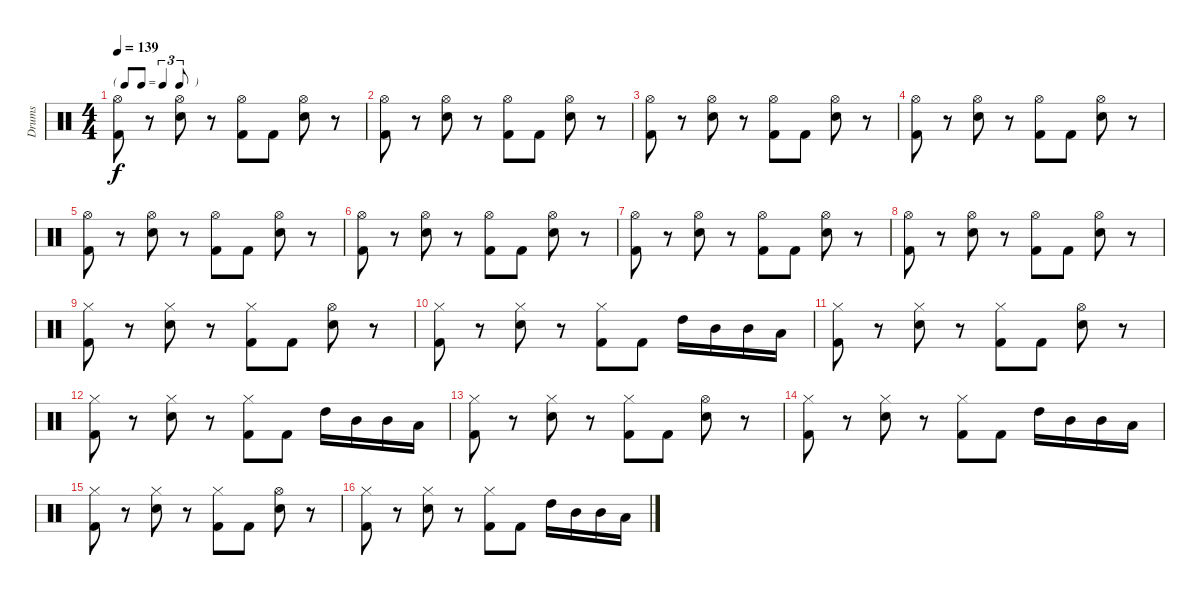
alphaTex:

\track ("Drums" "Drums") {instrument percussion}
\staff {score}
\articulation defaults
\ts (4 4)
\tf triplet8th
\tempo 139
\clef neutral
\ks c
("Hi-Hat (open)" "Kick (hit) 2").8{dy f} r.8 ("Hi-Hat (open)" "Snare (hit) 2").8 r.8 ("Hi-Hat (open)" "Kick (hit) 2").8 "Kick (hit) 2".8 ("Hi-Hat (open)" "Snare (hit) 2").8 r.8 |
("Hi-Hat (open)" "Kick (hit) 2").8 r.8 ("Hi-Hat (open)" "Snare (hit) 2").8 r.8 ("Hi-Hat (open)" "Kick (hit) 2").8 "Kick (hit) 2".8 ("Hi-Hat (open)" "Snare (hit) 2").8 r.8 |
("Hi-Hat (open)" "Kick (hit) 2").8 r.8 ("Hi-Hat (open)" "Snare (hit) 2").8 r.8 ("Hi-Hat (open)" "Kick (hit) 2").8 "Kick (hit) 2".8 ("Hi-Hat (open)" "Snare (hit) 2").8 r.8 |
("Hi-Hat (open)" "Kick (hit) 2").8 r.8 ("Hi-Hat (open)" "Snare (hit) 2").8 r.8 ("Hi-Hat (open)" "Kick (hit) 2").8 "Kick (hit) 2".8 ("Hi-Hat (open)" "Snare (hit) 2").8 r.8 |
("Hi-Hat (open)" "Kick (hit) 2").8 r.8 ("Hi-Hat (open)" "Snare (hit) 2").8 r.8 ("Hi-Hat (open)" "Kick (hit) 2").8 "Kick (hit) 2".8 ("Hi-Hat (open)" "Snare (hit) 2").8 r.8 |
("Hi-Hat (open)" "Kick (hit) 2").8 r.8 ("Hi-Hat (open)" "Snare (hit) 2").8 r.8 ("Hi-Hat (open)" "Kick (hit) 2").8 "Kick (hit) 2".8 ("Hi-Hat (open)" "Snare (hit) 2").8 r.8 |
("Hi-Hat (open)" "Kick (hit) 2").8 r.8 ("Hi-Hat (open)" "Snare (hit) 2").8 r.8 ("Hi-Hat (open)" "Kick (hit) 2").8 "Kick (hit) 2".8 ("Hi-Hat (open)" "Snare (hit) 2").8 r.8 |
("Hi-Hat (open)" "Kick (hit) 2").8 r.8 ("Hi-Hat (open)" "Snare (hit) 2").8 r.8 ("Hi-Hat (open)" "Kick (hit) 2").8 "Kick (hit) 2".8 ("Hi-Hat (open)" "Snare (hit) 2").8 r.8 |
("Hi-Hat (closed)" "Kick (hit) 2").8 r.8 ("Hi-Hat (closed)" "Snare (hit) 2").8 r.8 ("Hi-Hat (closed)" "Kick (hit) 2").8 "Kick (hit) 2".8 ("Hi-Hat (open)" "Snare (hit) 2").8 r.8 |
("Hi-Hat (closed)" "Kick (hit) 2").8 r.8 ("Hi-Hat (closed)" "Snare (hit) 2").8 r.8 ("Hi-Hat (closed)" "Kick (hit) 2").8 "Kick (hit) 2".8 "High Tom (hit)".16 "Mid Tom (hit)".16 "Mid Tom (hit)".16 "Low Tom (hit)".16 |
("Hi-Hat (closed)" "Kick (hit) 2").8 r.8 ("Hi-Hat (closed)" "Snare (hit) 2").8 r.8 ("Hi-Hat (closed)" "Kick (hit) 2").8 "Kick (hit) 2".8 ("Hi-Hat (open)" "Snare (hit) 2").8 r.8 |
("Hi-Hat (closed)" "Kick (hit) 2").8 r.8 ("Hi-Hat (closed)" "Snare (hit) 2").8 r.8 ("Hi-Hat (closed)" "Kick (hit) 2").8 "Kick (hit) 2".8 "High Tom (hit)".16 "Mid Tom (hit)".16 "Mid Tom (hit)".16 "Low Tom (hit)".16 |
("Hi-Hat (closed)" "Kick (hit) 2").8 r.8 ("Hi-Hat (closed)" "Snare (hit) 2").8 r.8 ("Hi-Hat (closed)" "Kick (hit) 2").8 "Kick (hit) 2".8 ("Hi-Hat (open)" "Snare (hit) 2").8 r.8 |
("Hi-Hat (closed)" "Kick (hit) 2").8 r.8 ("Hi-Hat (closed)" "Snare (hit) 2").8 r.8 ("Hi-Hat (closed)" "Kick (hit) 2").8 "Kick (hit) 2".8 "High Tom (hit)".16 "Mid Tom (hit)".16 "Mid Tom (hit)".16 "Low Tom (hit)".16 |
("Hi-Hat (closed)" "Kick (hit) 2").8 r.8 ("Hi-Hat (closed)" "Snare (hit) 2").8 r.8 ("Hi-Hat (closed)" "Kick (hit) 2").8 "Kick (hit) 2".8 ("Hi-Hat (open)" "Snare (hit) 2").8 r.8 |
("Hi-Hat (closed)" "Kick (hit) 2").8 r.8 ("Hi-Hat (closed)" "Snare (hit) 2").8 r.8 ("Hi-Hat (closed)" "Kick (hit) 2").8 "Kick (hit) 2".8 "High Tom (hit)".16 "Mid Tom (hit)".16 "Mid Tom (hit)".16 "Low Tom (hit)".16
